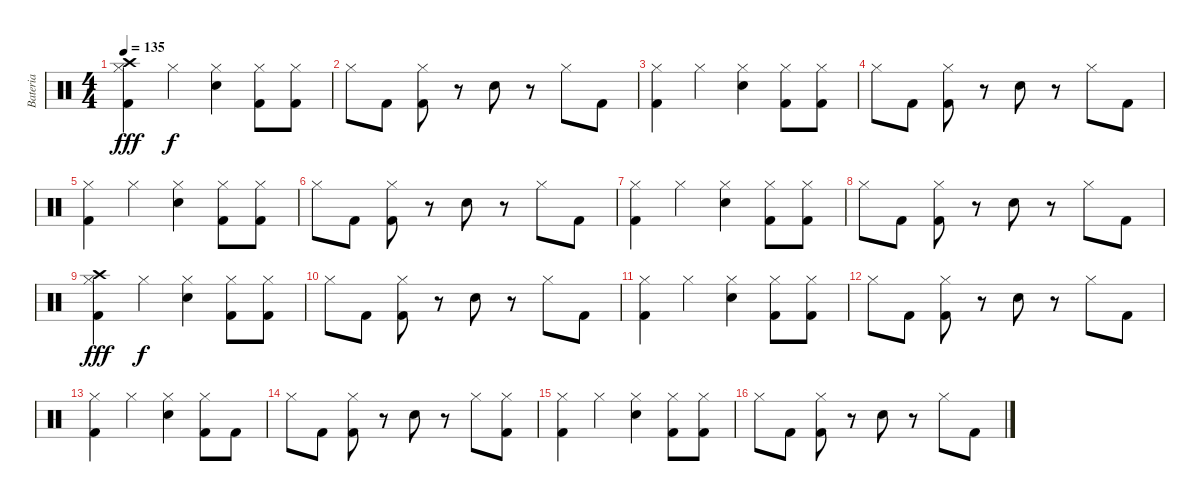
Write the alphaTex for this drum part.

\track ("Bateria" "Bateria") {instrument percussion}
\staff {score}
\articulation defaults
\ts (4 4)
\tempo 135
\clef neutral
\ks c
("Kick (hit) 2" "Hi-Hat (closed)" "Crash high (hit)").4{dy fff} "Hi-Hat (closed)".4{dy f} ("Snare (hit) 2" "Hi-Hat (closed)").4 ("Kick (hit) 2" "Hi-Hat (closed)").8 ("Kick (hit) 2" "Hi-Hat (closed)").8 |
"Hi-Hat (closed)".8 "Kick (hit) 2".8 ("Kick (hit) 2" "Hi-Hat (closed)").8 r.8 "Snare (hit) 2".8 r.8 "Hi-Hat (closed)".8 "Kick (hit) 2".8 |
("Kick (hit) 2" "Hi-Hat (closed)").4 "Hi-Hat (closed)".4 ("Snare (hit) 2" "Hi-Hat (closed)").4 ("Kick (hit) 2" "Hi-Hat (closed)").8 ("Kick (hit) 2" "Hi-Hat (closed)").8 |
"Hi-Hat (closed)".8 "Kick (hit) 2".8 ("Kick (hit) 2" "Hi-Hat (closed)").8 r.8 "Snare (hit) 2".8 r.8 "Hi-Hat (closed)".8 "Kick (hit) 2".8 |
("Kick (hit) 2" "Hi-Hat (closed)").4 "Hi-Hat (closed)".4 ("Snare (hit) 2" "Hi-Hat (closed)").4 ("Kick (hit) 2" "Hi-Hat (closed)").8 ("Kick (hit) 2" "Hi-Hat (closed)").8 |
"Hi-Hat (closed)".8 "Kick (hit) 2".8 ("Kick (hit) 2" "Hi-Hat (closed)").8 r.8 "Snare (hit) 2".8 r.8 "Hi-Hat (closed)".8 "Kick (hit) 2".8 |
("Kick (hit) 2" "Hi-Hat (closed)").4 "Hi-Hat (closed)".4 ("Snare (hit) 2" "Hi-Hat (closed)").4 ("Kick (hit) 2" "Hi-Hat (closed)").8 ("Kick (hit) 2" "Hi-Hat (closed)").8 |
"Hi-Hat (closed)".8 "Kick (hit) 2".8 ("Kick (hit) 2" "Hi-Hat (closed)").8 r.8 "Snare (hit) 2".8 r.8 "Hi-Hat (closed)".8 "Kick (hit) 2".8 |
("Kick (hit) 2" "Hi-Hat (closed)" "Crash high (hit)").4{dy fff} "Hi-Hat (closed)".4{dy f} ("Snare (hit) 2" "Hi-Hat (closed)").4 ("Kick (hit) 2" "Hi-Hat (closed)").8 ("Kick (hit) 2" "Hi-Hat (closed)").8 |
"Hi-Hat (closed)".8 "Kick (hit) 2".8 ("Kick (hit) 2" "Hi-Hat (closed)").8 r.8 "Snare (hit) 2".8 r.8 "Hi-Hat (closed)".8 "Kick (hit) 2".8 |
("Kick (hit) 2" "Hi-Hat (closed)").4 "Hi-Hat (closed)".4 ("Snare (hit) 2" "Hi-Hat (closed)").4 ("Kick (hit) 2" "Hi-Hat (closed)").8 ("Kick (hit) 2" "Hi-Hat (closed)").8 |
"Hi-Hat (closed)".8 "Kick (hit) 2".8 ("Kick (hit) 2" "Hi-Hat (closed)").8 r.8 "Snare (hit) 2".8 r.8 "Hi-Hat (closed)".8 "Kick (hit) 2".8 |
("Kick (hit) 2" "Hi-Hat (closed)").4 "Hi-Hat (closed)".4 ("Snare (hit) 2" "Hi-Hat (closed)").4 ("Kick (hit) 2" "Hi-Hat (closed)").8 "Kick (hit) 2".8 |
"Hi-Hat (closed)".8 "Kick (hit) 2".8 ("Kick (hit) 2" "Hi-Hat (closed)").8 r.8 "Snare (hit) 2".8 r.8 "Hi-Hat (closed)".8 ("Kick (hit) 2" "Hi-Hat (closed)").8 |
("Kick (hit) 2" "Hi-Hat (closed)").4 "Hi-Hat (closed)".4 ("Snare (hit) 2" "Hi-Hat (closed)").4 ("Kick (hit) 2" "Hi-Hat (closed)").8 ("Kick (hit) 2" "Hi-Hat (closed)").8 |
"Hi-Hat (closed)".8 "Kick (hit) 2".8 ("Kick (hit) 2" "Hi-Hat (closed)").8 r.8 "Snare (hit) 2".8 r.8 "Hi-Hat (closed)".8 "Kick (hit) 2".8
